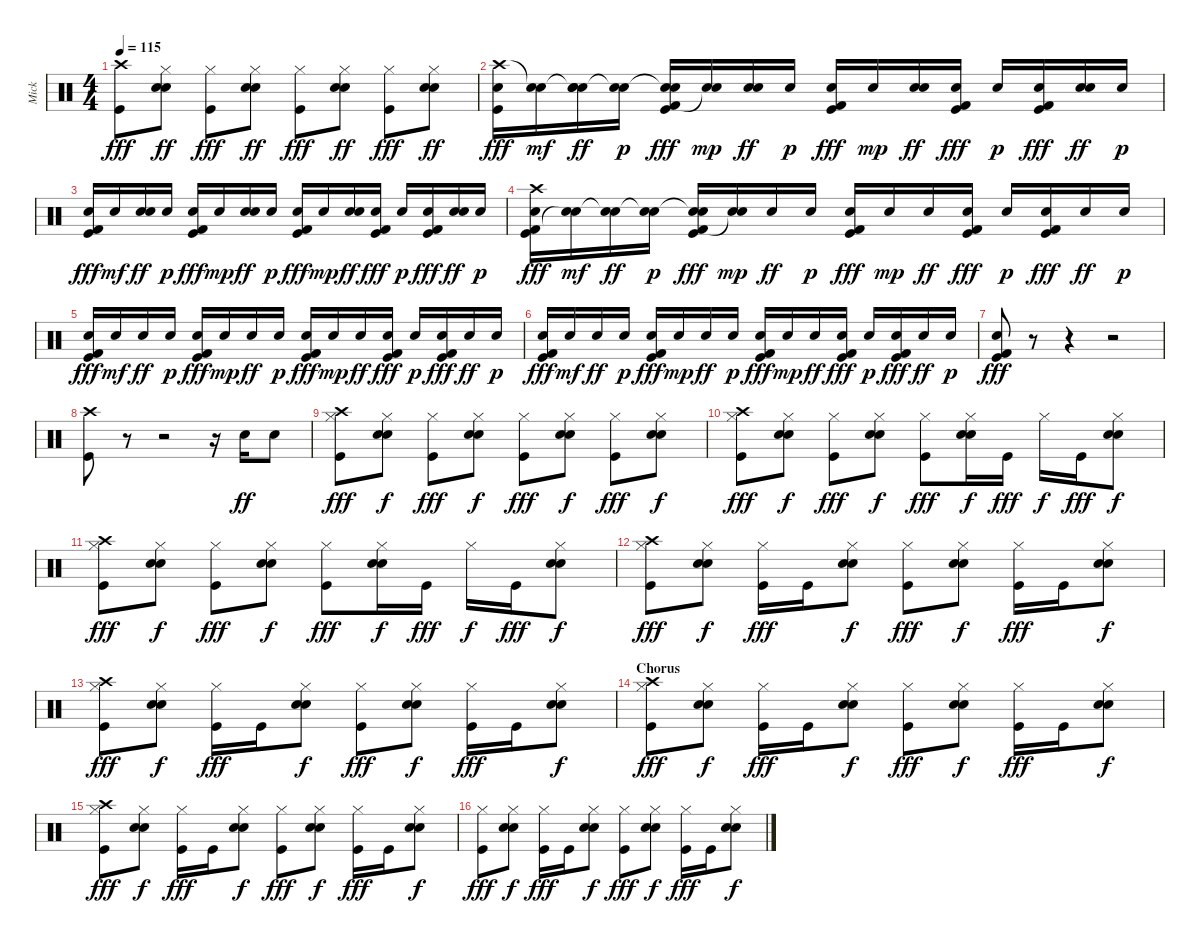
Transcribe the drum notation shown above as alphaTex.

\track ("Mick" "Mick") {instrument percussion}
\staff {score}
\articulation defaults
\ts (4 4)
\tempo 115
\clef neutral
\ks c
("Crash high (hit)" "Kick (hit)").8{dy fff} ("Hand Clap (hit)" "Hi-Hat (closed)" "Electric Snare (hit)").8{dy ff} ("Hi-Hat (closed)" "Kick (hit)").8{dy fff} ("Hand Clap (hit)" "Hi-Hat (closed)" "Electric Snare (hit)").8{dy ff} ("Hi-Hat (closed)" "Kick (hit)").8{dy fff} ("Hand Clap (hit)" "Hi-Hat (closed)" "Electric Snare (hit)").8{dy ff} ("Hi-Hat (closed)" "Kick (hit)").8{dy fff} ("Hand Clap (hit)" "Hi-Hat (closed)" "Electric Snare (hit)").8{dy ff} |
("Crash high (hit)" "Electric Snare (hit)" "Kick (hit)").16{dy fff} ("Snare (hit)"{t} "Electric Snare (hit)").16{dy mf} ("Hand Clap (hit)" "Snare (hit)"{t} "Electric Snare (hit)").16{dy ff} ("Snare (hit)"{t} "Electric Snare (hit)").16{dy p} ("Kick (hit) 2" "Snare (hit)"{t} "Electric Snare (hit)" "Kick (hit)").16{dy fff} ("Snare (hit)"{t} "Electric Snare (hit)").16{dy mp} ("Hand Clap (hit)" "Electric Snare (hit)").16{dy ff} "Electric Snare (hit)".16{dy p} ("Kick (hit) 2" "Electric Snare (hit)" "Kick (hit)").16{dy fff} "Electric Snare (hit)".16{dy mp} ("Hand Clap (hit)" "Electric Snare (hit)").16{dy ff} ("Kick (hit) 2" "Electric Snare (hit)" "Kick (hit)").16{dy fff} "Electric Snare (hit)".16{dy p} ("Kick (hit) 2" "Electric Snare (hit)" "Kick (hit)").16{dy fff} ("Hand Clap (hit)" "Electric Snare (hit)").16{dy ff} "Electric Snare (hit)".16{dy p} |
("Kick (hit) 2" "Electric Snare (hit)" "Kick (hit)").16{dy fff} "Electric Snare (hit)".16{dy mf} ("Hand Clap (hit)" "Electric Snare (hit)").16{dy ff} "Electric Snare (hit)".16{dy p} ("Kick (hit) 2" "Electric Snare (hit)" "Kick (hit)").16{dy fff} "Electric Snare (hit)".16{dy mp} ("Hand Clap (hit)" "Electric Snare (hit)").16{dy ff} "Electric Snare (hit)".16{dy p} ("Kick (hit) 2" "Electric Snare (hit)" "Kick (hit)").16{dy fff} "Electric Snare (hit)".16{dy mp} ("Hand Clap (hit)" "Electric Snare (hit)").16{dy ff} ("Kick (hit) 2" "Electric Snare (hit)" "Kick (hit)").16{dy fff} "Electric Snare (hit)".16{dy p} ("Kick (hit) 2" "Electric Snare (hit)" "Kick (hit)").16{dy fff} ("Hand Clap (hit)" "Electric Snare (hit)").16{dy ff} "Electric Snare (hit)".16{dy p} |
("Kick (hit) 2" "Crash high (hit)" "Electric Snare (hit)" "Kick (hit)").16{dy fff} ("Snare (hit)"{t} "Electric Snare (hit)").16{dy mf} ("Snare (hit)"{t} "Electric Snare (hit)").16{dy ff} ("Snare (hit)"{t} "Electric Snare (hit)").16{dy p} ("Kick (hit) 2" "Snare (hit)"{t} "Electric Snare (hit)" "Kick (hit)").16{dy fff} ("Snare (hit)"{t} "Electric Snare (hit)").16{dy mp} "Electric Snare (hit)".16{dy ff} "Electric Snare (hit)".16{dy p} ("Kick (hit) 2" "Electric Snare (hit)" "Kick (hit)").16{dy fff} "Electric Snare (hit)".16{dy mp} "Electric Snare (hit)".16{dy ff} ("Kick (hit) 2" "Electric Snare (hit)" "Kick (hit)").16{dy fff} "Electric Snare (hit)".16{dy p} ("Kick (hit) 2" "Electric Snare (hit)" "Kick (hit)").16{dy fff} "Electric Snare (hit)".16{dy ff} "Electric Snare (hit)".16{dy p} |
("Kick (hit) 2" "Electric Snare (hit)" "Kick (hit)").16{dy fff} "Electric Snare (hit)".16{dy mf} "Electric Snare (hit)".16{dy ff} "Electric Snare (hit)".16{dy p} ("Kick (hit) 2" "Electric Snare (hit)" "Kick (hit)").16{dy fff} "Electric Snare (hit)".16{dy mp} "Electric Snare (hit)".16{dy ff} "Electric Snare (hit)".16{dy p} ("Kick (hit) 2" "Electric Snare (hit)" "Kick (hit)").16{dy fff} "Electric Snare (hit)".16{dy mp} "Electric Snare (hit)".16{dy ff} ("Kick (hit) 2" "Electric Snare (hit)" "Kick (hit)").16{dy fff} "Electric Snare (hit)".16{dy p} ("Kick (hit) 2" "Electric Snare (hit)" "Kick (hit)").16{dy fff} "Electric Snare (hit)".16{dy ff} "Electric Snare (hit)".16{dy p} |
("Kick (hit) 2" "Electric Snare (hit)" "Kick (hit)").16{dy fff} "Electric Snare (hit)".16{dy mf} "Electric Snare (hit)".16{dy ff} "Electric Snare (hit)".16{dy p} ("Kick (hit) 2" "Electric Snare (hit)" "Kick (hit)").16{dy fff} "Electric Snare (hit)".16{dy mp} "Electric Snare (hit)".16{dy ff} "Electric Snare (hit)".16{dy p} ("Kick (hit) 2" "Electric Snare (hit)" "Kick (hit)").16{dy fff} "Electric Snare (hit)".16{dy mp} "Electric Snare (hit)".16{dy ff} ("Kick (hit) 2" "Electric Snare (hit)" "Kick (hit)").16{dy fff} "Electric Snare (hit)".16{dy p} ("Kick (hit) 2" "Electric Snare (hit)" "Kick (hit)").16{dy fff} "Electric Snare (hit)".16{dy ff} "Electric Snare (hit)".16{dy p} |
("Kick (hit) 2" "Electric Snare (hit)" "Kick (hit)").8{dy fff} r.8 r.4 r.2 |
("Crash high (hit)" "Kick (hit)").8 r.8 r.2 r.16 "Electric Snare (hit)".16{dy ff} "Electric Snare (hit)".8 |
("Crash high (hit)" "Hi-Hat (closed)" "Kick (hit)").8{dy fff} ("Hand Clap (hit)" "Hi-Hat (closed)" "Electric Snare (hit)").8{dy f} ("Hi-Hat (closed)" "Kick (hit)").8{dy fff} ("Hand Clap (hit)" "Hi-Hat (closed)" "Electric Snare (hit)").8{dy f} ("Hi-Hat (closed)" "Kick (hit)").8{dy fff} ("Hand Clap (hit)" "Hi-Hat (closed)" "Electric Snare (hit)").8{dy f} ("Hi-Hat (closed)" "Kick (hit)").8{dy fff} ("Hand Clap (hit)" "Hi-Hat (closed)" "Electric Snare (hit)").8{dy f} |
("Crash high (hit)" "Hi-Hat (closed)" "Kick (hit)").8{dy fff} ("Hand Clap (hit)" "Hi-Hat (closed)" "Electric Snare (hit)").8{dy f} ("Hi-Hat (closed)" "Kick (hit)").8{dy fff} ("Hand Clap (hit)" "Hi-Hat (closed)" "Electric Snare (hit)").8{dy f} ("Hi-Hat (closed)" "Kick (hit)").8{dy fff} ("Hand Clap (hit)" "Hi-Hat (closed)" "Electric Snare (hit)").16{dy f} "Kick (hit)".16{dy fff} "Hi-Hat (closed)".16{dy f} "Kick (hit)".16{dy fff} ("Hand Clap (hit)" "Hi-Hat (closed)" "Electric Snare (hit)").8{dy f} |
("Crash high (hit)" "Hi-Hat (closed)" "Kick (hit)").8{dy fff} ("Hand Clap (hit)" "Hi-Hat (closed)" "Electric Snare (hit)").8{dy f} ("Hi-Hat (closed)" "Kick (hit)").8{dy fff} ("Hand Clap (hit)" "Hi-Hat (closed)" "Electric Snare (hit)").8{dy f} ("Hi-Hat (closed)" "Kick (hit)").8{dy fff} ("Hand Clap (hit)" "Hi-Hat (closed)" "Electric Snare (hit)").16{dy f} "Kick (hit)".16{dy fff} "Hi-Hat (closed)".16{dy f} "Kick (hit)".16{dy fff} ("Hand Clap (hit)" "Hi-Hat (closed)" "Electric Snare (hit)").8{dy f} |
("Crash high (hit)" "Hi-Hat (closed)" "Kick (hit)").8{dy fff} ("Hand Clap (hit)" "Hi-Hat (closed)" "Electric Snare (hit)").8{dy f} ("Hi-Hat (closed)" "Kick (hit)").16{dy fff} "Kick (hit)".16 ("Hand Clap (hit)" "Hi-Hat (closed)" "Electric Snare (hit)").8{dy f} ("Hi-Hat (closed)" "Kick (hit)").8{dy fff} ("Hand Clap (hit)" "Hi-Hat (closed)" "Electric Snare (hit)").8{dy f} ("Hi-Hat (closed)" "Kick (hit)").16{dy fff} "Kick (hit)".16 ("Hand Clap (hit)" "Hi-Hat (closed)" "Electric Snare (hit)").8{dy f} |
("Crash high (hit)" "Hi-Hat (closed)" "Kick (hit)").8{dy fff} ("Hand Clap (hit)" "Hi-Hat (closed)" "Electric Snare (hit)").8{dy f} ("Hi-Hat (closed)" "Kick (hit)").16{dy fff} "Kick (hit)".16 ("Hand Clap (hit)" "Hi-Hat (closed)" "Electric Snare (hit)").8{dy f} ("Hi-Hat (closed)" "Kick (hit)").8{dy fff} ("Hand Clap (hit)" "Hi-Hat (closed)" "Electric Snare (hit)").8{dy f} ("Hi-Hat (closed)" "Kick (hit)").16{dy fff} "Kick (hit)".16 ("Hand Clap (hit)" "Hi-Hat (closed)" "Electric Snare (hit)").8{dy f} |
\section ("" "Chorus")
("Crash high (hit)" "Hi-Hat (closed)" "Kick (hit)").8{dy fff} ("Hand Clap (hit)" "Hi-Hat (closed)" "Electric Snare (hit)").8{dy f} ("Hi-Hat (closed)" "Kick (hit)").16{dy fff} "Kick (hit)".16 ("Hand Clap (hit)" "Hi-Hat (closed)" "Electric Snare (hit)").8{dy f} ("Hi-Hat (closed)" "Kick (hit)").8{dy fff} ("Hand Clap (hit)" "Hi-Hat (closed)" "Electric Snare (hit)").8{dy f} ("Hi-Hat (closed)" "Kick (hit)").16{dy fff} "Kick (hit)".16 ("Hand Clap (hit)" "Hi-Hat (closed)" "Electric Snare (hit)").8{dy f} |
("Crash high (hit)" "Hi-Hat (closed)" "Kick (hit)").8{dy fff} ("Hand Clap (hit)" "Hi-Hat (closed)" "Electric Snare (hit)").8{dy f} ("Hi-Hat (closed)" "Kick (hit)").16{dy fff} "Kick (hit)".16 ("Hand Clap (hit)" "Hi-Hat (closed)" "Electric Snare (hit)").8{dy f} ("Hi-Hat (closed)" "Kick (hit)").8{dy fff} ("Hand Clap (hit)" "Hi-Hat (closed)" "Electric Snare (hit)").8{dy f} ("Hi-Hat (closed)" "Kick (hit)").16{dy fff} "Kick (hit)".16 ("Hand Clap (hit)" "Hi-Hat (closed)" "Electric Snare (hit)").8{dy f} |
("Hi-Hat (closed)" "Kick (hit)").8{dy fff} ("Hand Clap (hit)" "Hi-Hat (closed)" "Electric Snare (hit)").8{dy f} ("Hi-Hat (closed)" "Kick (hit)").16{dy fff} "Kick (hit)".16 ("Hand Clap (hit)" "Hi-Hat (closed)" "Electric Snare (hit)").8{dy f} ("Hi-Hat (closed)" "Kick (hit)").8{dy fff} ("Hand Clap (hit)" "Hi-Hat (closed)" "Electric Snare (hit)").8{dy f} ("Hi-Hat (closed)" "Kick (hit)").16{dy fff} "Kick (hit)".16 ("Hand Clap (hit)" "Hi-Hat (closed)" "Electric Snare (hit)").8{dy f}
